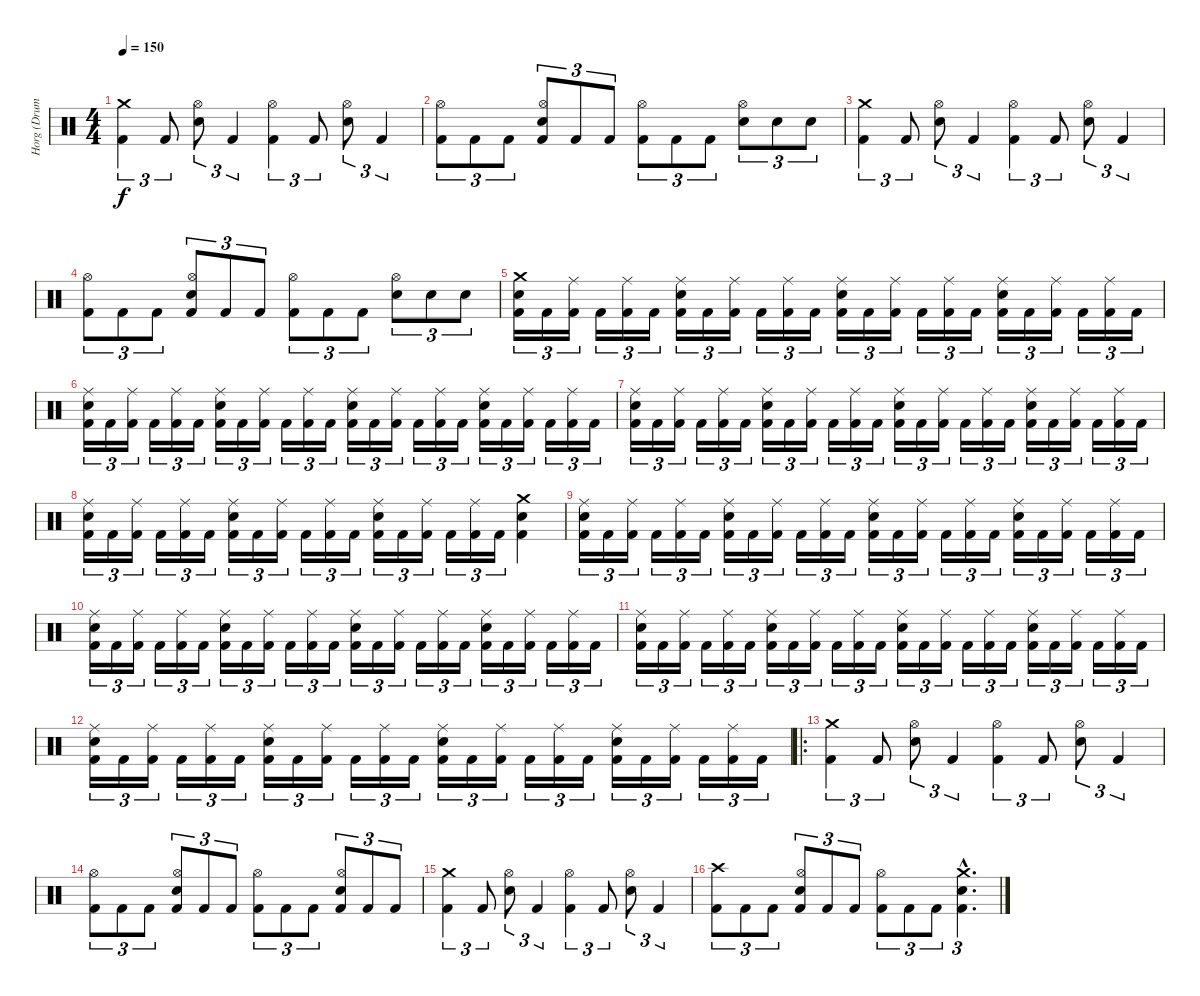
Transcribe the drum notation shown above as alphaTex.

\track ("Horg (Drums)" "Horg (Drum") {instrument percussion}
\staff {score}
\articulation defaults
\ts (4 4)
\tempo 150
\clef neutral
\ks c
("Crash medium (hit)" "Kick (hit) 2").4{tu (3 2) dy f} "Kick (hit) 2".8{tu (3 2)} ("Hi-Hat (open)" "Electric Snare (hit)").8{tu (3 2)} "Kick (hit) 2".4{tu (3 2)} ("Hi-Hat (open)" "Kick (hit) 2").4{tu (3 2)} "Kick (hit) 2".8{tu (3 2)} ("Hi-Hat (open)" "Electric Snare (hit)").8{tu (3 2)} "Kick (hit) 2".4{tu (3 2)} |
("Hi-Hat (open)" "Kick (hit) 2").8{tu (3 2)} "Kick (hit) 2".8{tu (3 2)} "Kick (hit) 2".8{tu (3 2)} ("Hi-Hat (open)" "Electric Snare (hit)" "Kick (hit) 2").8{tu (3 2)} "Kick (hit) 2".8{tu (3 2)} "Kick (hit) 2".8{tu (3 2)} ("Hi-Hat (open)" "Kick (hit) 2").8{tu (3 2)} "Kick (hit) 2".8{tu (3 2)} "Kick (hit) 2".8{tu (3 2)} ("Hi-Hat (open)" "Electric Snare (hit)").8{tu (3 2)} "Electric Snare (hit)".8{tu (3 2)} "Electric Snare (hit)".8{tu (3 2)} |
("Crash medium (hit)" "Kick (hit) 2").4{tu (3 2)} "Kick (hit) 2".8{tu (3 2)} ("Hi-Hat (open)" "Electric Snare (hit)").8{tu (3 2)} "Kick (hit) 2".4{tu (3 2)} ("Hi-Hat (open)" "Kick (hit) 2").4{tu (3 2)} "Kick (hit) 2".8{tu (3 2)} ("Hi-Hat (open)" "Electric Snare (hit)").8{tu (3 2)} "Kick (hit) 2".4{tu (3 2)} |
("Hi-Hat (open)" "Kick (hit) 2").8{tu (3 2)} "Kick (hit) 2".8{tu (3 2)} "Kick (hit) 2".8{tu (3 2)} ("Hi-Hat (open)" "Electric Snare (hit)" "Kick (hit) 2").8{tu (3 2)} "Kick (hit) 2".8{tu (3 2)} "Kick (hit) 2".8{tu (3 2)} ("Hi-Hat (open)" "Kick (hit) 2").8{tu (3 2)} "Kick (hit) 2".8{tu (3 2)} "Kick (hit) 2".8{tu (3 2)} ("Hi-Hat (open)" "Electric Snare (hit)").8{tu (3 2)} "Electric Snare (hit)".8{tu (3 2)} "Electric Snare (hit)".8{tu (3 2)} |
("Crash medium (hit)" "Electric Snare (hit)" "Kick (hit) 2").16{tu (3 2)} "Kick (hit) 2".16{tu (3 2)} ("Ride (middle)" "Kick (hit) 2").16{tu (3 2)} "Kick (hit) 2".16{tu (3 2)} ("Ride (middle)" "Kick (hit) 2").16{tu (3 2)} "Kick (hit) 2".16{tu (3 2)} ("Ride (middle)" "Electric Snare (hit)" "Kick (hit) 2").16{tu (3 2)} "Kick (hit) 2".16{tu (3 2)} ("Ride (middle)" "Kick (hit) 2").16{tu (3 2)} "Kick (hit) 2".16{tu (3 2)} ("Ride (middle)" "Kick (hit) 2").16{tu (3 2)} "Kick (hit) 2".16{tu (3 2)} ("Ride (middle)" "Electric Snare (hit)" "Kick (hit) 2").16{tu (3 2)} "Kick (hit) 2".16{tu (3 2)} ("Ride (middle)" "Kick (hit) 2").16{tu (3 2)} "Kick (hit) 2".16{tu (3 2)} ("Ride (middle)" "Kick (hit) 2").16{tu (3 2)} "Kick (hit) 2".16{tu (3 2)} ("Ride (middle)" "Electric Snare (hit)" "Kick (hit) 2").16{tu (3 2)} "Kick (hit) 2".16{tu (3 2)} ("Ride (middle)" "Kick (hit) 2").16{tu (3 2)} "Kick (hit) 2".16{tu (3 2)} ("Ride (middle)" "Kick (hit) 2").16{tu (3 2)} "Kick (hit) 2".16{tu (3 2)} |
("Ride (middle)" "Electric Snare (hit)" "Kick (hit) 2").16{tu (3 2)} "Kick (hit) 2".16{tu (3 2)} ("Ride (middle)" "Kick (hit) 2").16{tu (3 2)} "Kick (hit) 2".16{tu (3 2)} ("Ride (middle)" "Kick (hit) 2").16{tu (3 2)} "Kick (hit) 2".16{tu (3 2)} ("Ride (middle)" "Electric Snare (hit)" "Kick (hit) 2").16{tu (3 2)} "Kick (hit) 2".16{tu (3 2)} ("Ride (middle)" "Kick (hit) 2").16{tu (3 2)} "Kick (hit) 2".16{tu (3 2)} ("Ride (middle)" "Kick (hit) 2").16{tu (3 2)} "Kick (hit) 2".16{tu (3 2)} ("Ride (middle)" "Electric Snare (hit)" "Kick (hit) 2").16{tu (3 2)} "Kick (hit) 2".16{tu (3 2)} ("Ride (middle)" "Kick (hit) 2").16{tu (3 2)} "Kick (hit) 2".16{tu (3 2)} ("Ride (middle)" "Kick (hit) 2").16{tu (3 2)} "Kick (hit) 2".16{tu (3 2)} ("Ride (middle)" "Electric Snare (hit)" "Kick (hit) 2").16{tu (3 2)} "Kick (hit) 2".16{tu (3 2)} ("Ride (middle)" "Kick (hit) 2").16{tu (3 2)} "Kick (hit) 2".16{tu (3 2)} ("Ride (middle)" "Kick (hit) 2").16{tu (3 2)} "Kick (hit) 2".16{tu (3 2)} |
("Ride (middle)" "Electric Snare (hit)" "Kick (hit) 2").16{tu (3 2)} "Kick (hit) 2".16{tu (3 2)} ("Ride (middle)" "Kick (hit) 2").16{tu (3 2)} "Kick (hit) 2".16{tu (3 2)} ("Ride (middle)" "Kick (hit) 2").16{tu (3 2)} "Kick (hit) 2".16{tu (3 2)} ("Ride (middle)" "Electric Snare (hit)" "Kick (hit) 2").16{tu (3 2)} "Kick (hit) 2".16{tu (3 2)} ("Ride (middle)" "Kick (hit) 2").16{tu (3 2)} "Kick (hit) 2".16{tu (3 2)} ("Ride (middle)" "Kick (hit) 2").16{tu (3 2)} "Kick (hit) 2".16{tu (3 2)} ("Ride (middle)" "Electric Snare (hit)" "Kick (hit) 2").16{tu (3 2)} "Kick (hit) 2".16{tu (3 2)} ("Ride (middle)" "Kick (hit) 2").16{tu (3 2)} "Kick (hit) 2".16{tu (3 2)} ("Ride (middle)" "Kick (hit) 2").16{tu (3 2)} "Kick (hit) 2".16{tu (3 2)} ("Ride (middle)" "Electric Snare (hit)" "Kick (hit) 2").16{tu (3 2)} "Kick (hit) 2".16{tu (3 2)} ("Ride (middle)" "Kick (hit) 2").16{tu (3 2)} "Kick (hit) 2".16{tu (3 2)} ("Ride (middle)" "Kick (hit) 2").16{tu (3 2)} "Kick (hit) 2".16{tu (3 2)} |
("Ride (middle)" "Electric Snare (hit)" "Kick (hit) 2").16{tu (3 2)} "Kick (hit) 2".16{tu (3 2)} ("Ride (middle)" "Kick (hit) 2").16{tu (3 2)} "Kick (hit) 2".16{tu (3 2)} ("Ride (middle)" "Kick (hit) 2").16{tu (3 2)} "Kick (hit) 2".16{tu (3 2)} ("Ride (middle)" "Electric Snare (hit)" "Kick (hit) 2").16{tu (3 2)} "Kick (hit) 2".16{tu (3 2)} ("Ride (middle)" "Kick (hit) 2").16{tu (3 2)} "Kick (hit) 2".16{tu (3 2)} ("Ride (middle)" "Kick (hit) 2").16{tu (3 2)} "Kick (hit) 2".16{tu (3 2)} ("Ride (middle)" "Electric Snare (hit)" "Kick (hit) 2").16{tu (3 2)} "Kick (hit) 2".16{tu (3 2)} ("Ride (middle)" "Kick (hit) 2").16{tu (3 2)} "Kick (hit) 2".16{tu (3 2)} ("Ride (middle)" "Kick (hit) 2").16{tu (3 2)} "Kick (hit) 2".16{tu (3 2)} ("Crash medium (hit)" "Electric Snare (hit)" "Kick (hit) 2").4 |
("Ride (middle)" "Electric Snare (hit)" "Kick (hit) 2").16{tu (3 2)} "Kick (hit) 2".16{tu (3 2)} ("Ride (middle)" "Kick (hit) 2").16{tu (3 2)} "Kick (hit) 2".16{tu (3 2)} ("Ride (middle)" "Kick (hit) 2").16{tu (3 2)} "Kick (hit) 2".16{tu (3 2)} ("Ride (middle)" "Electric Snare (hit)" "Kick (hit) 2").16{tu (3 2)} "Kick (hit) 2".16{tu (3 2)} ("Ride (middle)" "Kick (hit) 2").16{tu (3 2)} "Kick (hit) 2".16{tu (3 2)} ("Ride (middle)" "Kick (hit) 2").16{tu (3 2)} "Kick (hit) 2".16{tu (3 2)} ("Ride (middle)" "Electric Snare (hit)" "Kick (hit) 2").16{tu (3 2)} "Kick (hit) 2".16{tu (3 2)} ("Ride (middle)" "Kick (hit) 2").16{tu (3 2)} "Kick (hit) 2".16{tu (3 2)} ("Ride (middle)" "Kick (hit) 2").16{tu (3 2)} "Kick (hit) 2".16{tu (3 2)} ("Ride (middle)" "Electric Snare (hit)" "Kick (hit) 2").16{tu (3 2)} "Kick (hit) 2".16{tu (3 2)} ("Ride (middle)" "Kick (hit) 2").16{tu (3 2)} "Kick (hit) 2".16{tu (3 2)} ("Ride (middle)" "Kick (hit) 2").16{tu (3 2)} "Kick (hit) 2".16{tu (3 2)} |
("Ride (middle)" "Electric Snare (hit)" "Kick (hit) 2").16{tu (3 2)} "Kick (hit) 2".16{tu (3 2)} ("Ride (middle)" "Kick (hit) 2").16{tu (3 2)} "Kick (hit) 2".16{tu (3 2)} ("Ride (middle)" "Kick (hit) 2").16{tu (3 2)} "Kick (hit) 2".16{tu (3 2)} ("Ride (middle)" "Electric Snare (hit)" "Kick (hit) 2").16{tu (3 2)} "Kick (hit) 2".16{tu (3 2)} ("Ride (middle)" "Kick (hit) 2").16{tu (3 2)} "Kick (hit) 2".16{tu (3 2)} ("Ride (middle)" "Kick (hit) 2").16{tu (3 2)} "Kick (hit) 2".16{tu (3 2)} ("Ride (middle)" "Electric Snare (hit)" "Kick (hit) 2").16{tu (3 2)} "Kick (hit) 2".16{tu (3 2)} ("Ride (middle)" "Kick (hit) 2").16{tu (3 2)} "Kick (hit) 2".16{tu (3 2)} ("Ride (middle)" "Kick (hit) 2").16{tu (3 2)} "Kick (hit) 2".16{tu (3 2)} ("Ride (middle)" "Electric Snare (hit)" "Kick (hit) 2").16{tu (3 2)} "Kick (hit) 2".16{tu (3 2)} ("Ride (middle)" "Kick (hit) 2").16{tu (3 2)} "Kick (hit) 2".16{tu (3 2)} ("Ride (middle)" "Kick (hit) 2").16{tu (3 2)} "Kick (hit) 2".16{tu (3 2)} |
("Ride (middle)" "Electric Snare (hit)" "Kick (hit) 2").16{tu (3 2)} "Kick (hit) 2".16{tu (3 2)} ("Ride (middle)" "Kick (hit) 2").16{tu (3 2)} "Kick (hit) 2".16{tu (3 2)} ("Ride (middle)" "Kick (hit) 2").16{tu (3 2)} "Kick (hit) 2".16{tu (3 2)} ("Ride (middle)" "Electric Snare (hit)" "Kick (hit) 2").16{tu (3 2)} "Kick (hit) 2".16{tu (3 2)} ("Ride (middle)" "Kick (hit) 2").16{tu (3 2)} "Kick (hit) 2".16{tu (3 2)} ("Ride (middle)" "Kick (hit) 2").16{tu (3 2)} "Kick (hit) 2".16{tu (3 2)} ("Ride (middle)" "Electric Snare (hit)" "Kick (hit) 2").16{tu (3 2)} "Kick (hit) 2".16{tu (3 2)} ("Ride (middle)" "Kick (hit) 2").16{tu (3 2)} "Kick (hit) 2".16{tu (3 2)} ("Ride (middle)" "Kick (hit) 2").16{tu (3 2)} "Kick (hit) 2".16{tu (3 2)} ("Ride (middle)" "Electric Snare (hit)" "Kick (hit) 2").16{tu (3 2)} "Kick (hit) 2".16{tu (3 2)} ("Ride (middle)" "Kick (hit) 2").16{tu (3 2)} "Kick (hit) 2".16{tu (3 2)} ("Ride (middle)" "Kick (hit) 2").16{tu (3 2)} "Kick (hit) 2".16{tu (3 2)} |
("Ride (middle)" "Electric Snare (hit)" "Kick (hit) 2").16{tu (3 2)} "Kick (hit) 2".16{tu (3 2)} ("Ride (middle)" "Kick (hit) 2").16{tu (3 2)} "Kick (hit) 2".16{tu (3 2)} ("Ride (middle)" "Kick (hit) 2").16{tu (3 2)} "Kick (hit) 2".16{tu (3 2)} ("Ride (middle)" "Electric Snare (hit)" "Kick (hit) 2").16{tu (3 2)} "Kick (hit) 2".16{tu (3 2)} ("Ride (middle)" "Kick (hit) 2").16{tu (3 2)} "Kick (hit) 2".16{tu (3 2)} ("Ride (middle)" "Kick (hit) 2").16{tu (3 2)} "Kick (hit) 2".16{tu (3 2)} ("Ride (middle)" "Electric Snare (hit)" "Kick (hit) 2").16{tu (3 2)} "Kick (hit) 2".16{tu (3 2)} ("Ride (middle)" "Kick (hit) 2").16{tu (3 2)} "Kick (hit) 2".16{tu (3 2)} ("Ride (middle)" "Kick (hit) 2").16{tu (3 2)} "Kick (hit) 2".16{tu (3 2)} ("Ride (middle)" "Electric Snare (hit)" "Kick (hit) 2").16{tu (3 2)} "Kick (hit) 2".16{tu (3 2)} ("Ride (middle)" "Kick (hit) 2").16{tu (3 2)} "Kick (hit) 2".16{tu (3 2)} ("Ride (middle)" "Kick (hit) 2").16{tu (3 2)} "Kick (hit) 2".16{tu (3 2)} |
\ro
("Crash medium (hit)" "Kick (hit) 2").4{tu (3 2)} "Kick (hit) 2".8{tu (3 2)} ("Hi-Hat (open)" "Electric Snare (hit)").8{tu (3 2)} "Kick (hit) 2".4{tu (3 2)} ("Hi-Hat (open)" "Kick (hit) 2").4{tu (3 2)} "Kick (hit) 2".8{tu (3 2)} ("Hi-Hat (open)" "Electric Snare (hit)").8{tu (3 2)} "Kick (hit) 2".4{tu (3 2)} |
("Hi-Hat (open)" "Kick (hit) 2").8{tu (3 2)} "Kick (hit) 2".8{tu (3 2)} "Kick (hit) 2".8{tu (3 2)} ("Hi-Hat (open)" "Electric Snare (hit)" "Kick (hit) 2").8{tu (3 2)} "Kick (hit) 2".8{tu (3 2)} "Kick (hit) 2".8{tu (3 2)} ("Hi-Hat (open)" "Kick (hit) 2").8{tu (3 2)} "Kick (hit) 2".8{tu (3 2)} "Kick (hit) 2".8{tu (3 2)} ("Hi-Hat (open)" "Electric Snare (hit)" "Kick (hit) 2").8{tu (3 2)} "Kick (hit) 2".8{tu (3 2)} "Kick (hit) 2".8{tu (3 2)} |
("Crash medium (hit)" "Kick (hit) 2").4{tu (3 2)} "Kick (hit) 2".8{tu (3 2)} ("Hi-Hat (open)" "Electric Snare (hit)").8{tu (3 2)} "Kick (hit) 2".4{tu (3 2)} ("Hi-Hat (open)" "Kick (hit) 2").4{tu (3 2)} "Kick (hit) 2".8{tu (3 2)} ("Hi-Hat (open)" "Electric Snare (hit)").8{tu (3 2)} "Kick (hit) 2".4{tu (3 2)} |
("Crash high (hit)" "Kick (hit) 2").8{tu (3 2)} "Kick (hit) 2".8{tu (3 2)} "Kick (hit) 2".8{tu (3 2)} ("Hi-Hat (open)" "Electric Snare (hit)" "Kick (hit) 2").8{tu (3 2)} "Kick (hit) 2".8{tu (3 2)} "Kick (hit) 2".8{tu (3 2)} ("Hi-Hat (open)" "Kick (hit) 2").8{tu (3 2)} "Kick (hit) 2".8{tu (3 2)} "Kick (hit) 2".8{tu (3 2)} ("Crash medium (hit)"{hac} "Electric Snare (hit)"{hac} "Kick (hit) 2"{hac}).4{d tu (3 2)}
